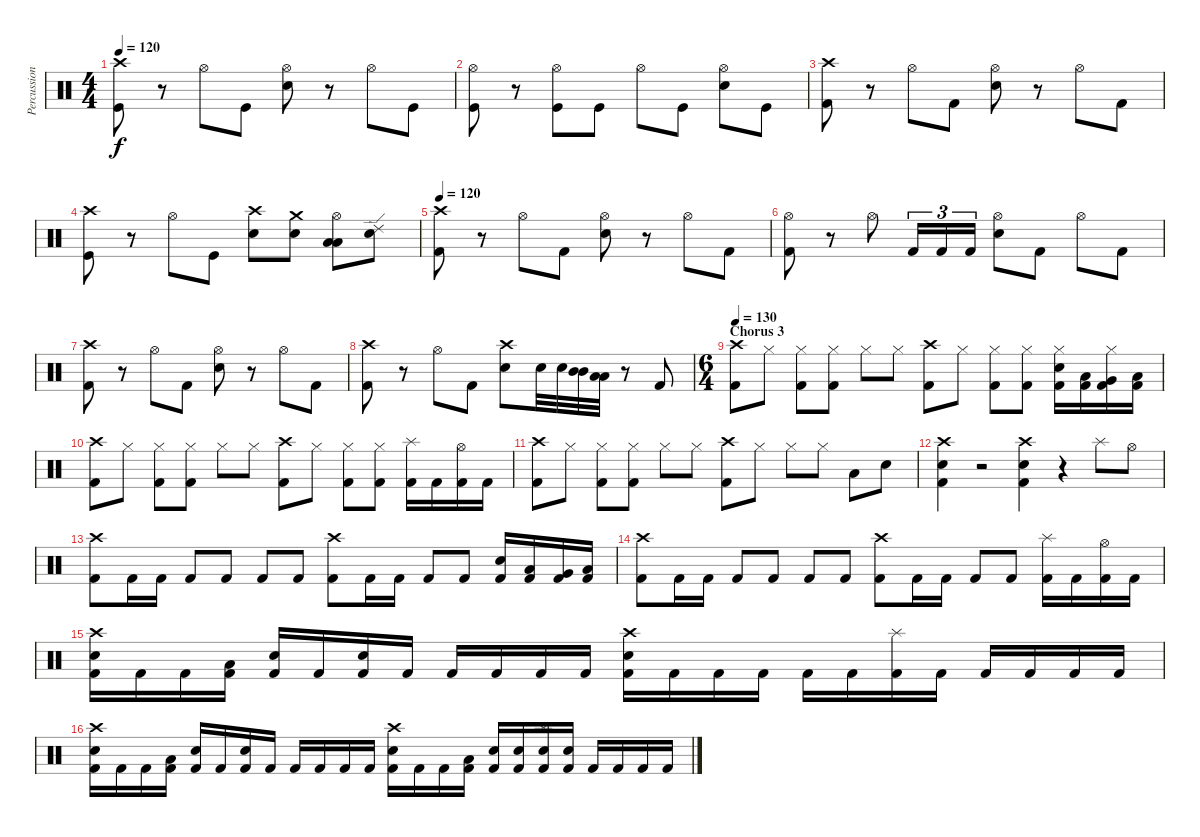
\track ("Percussion" "Percussion") {instrument percussion}
\staff {score}
\articulation defaults
\ts (4 4)
\tempo 120
\clef neutral
\ks c
("Crash high (hit)" "Kick (hit)").8{dy f} r.8 "Hi-Hat (open)".8 "Kick (hit)".8 ("Hi-Hat (open)" "Electric Snare (hit)").8 r.8 "Hi-Hat (open)".8 "Kick (hit)".8 |
("Hi-Hat (open)" "Kick (hit)").8 r.8 ("Hi-Hat (open)" "Kick (hit)").8 "Kick (hit)".8 "Hi-Hat (open)".8 "Kick (hit)".8 ("Hi-Hat (open)" "Electric Snare (hit)").8 "Kick (hit)".8 |
("Crash high (hit)" "Kick (hit) 2").8 r.8 "Hi-Hat (open)".8 "Kick (hit) 2".8 ("Hi-Hat (open)" "Electric Snare (hit)").8 r.8 "Hi-Hat (open)".8 "Kick (hit) 2".8 |
("Crash high (hit)" "Kick (hit)").8 r.8 "Hi-Hat (open)".8 "Kick (hit)".8 ("Crash high (hit)" "Electric Snare (hit)").8 ("Crash medium (hit)" "Electric Snare (hit)").8 ("Hi-Hat (open)" "Low Tom (hit)" "Low Tom (hit)").8 ("Ride (edge) 2" "Electric Snare (hit)").8 |
\tempo 120
("Crash high (hit)" "Kick (hit) 2").8 r.8 "Hi-Hat (open)".8 "Kick (hit) 2".8 ("Hi-Hat (open)" "Electric Snare (hit)").8 r.8 "Hi-Hat (open)".8 "Kick (hit) 2".8 |
("Hi-Hat (open)" "Kick (hit) 2").8 r.8 "Hi-Hat (open)".8 "Kick (hit) 2".16{tu (3 2)} "Kick (hit) 2".16{tu (3 2)} "Kick (hit) 2".16{tu (3 2)} ("Hi-Hat (open)" "Electric Snare (hit)").8 "Kick (hit) 2".8 "Hi-Hat (open)".8 "Kick (hit) 2".8 |
("Crash high (hit)" "Kick (hit) 2").8 r.8 "Hi-Hat (open)".8 "Kick (hit) 2".8 ("Hi-Hat (open)" "Electric Snare (hit)").8 r.8 "Hi-Hat (open)".8 "Kick (hit) 2".8 |
("Crash high (hit)" "Kick (hit) 2").8 r.8 "Hi-Hat (open)".8 "Kick (hit) 2".8 ("Crash high (hit)" "Electric Snare (hit)").8 "Electric Snare (hit)".32 "Electric Snare (hit)".32 ("Mid Tom (hit)" "Mid Tom (hit)").32 ("Low Tom (hit)" "Low Tom (hit)").32 r.8 "Kick (hit) 2".8 |
\ts (6 4)
\section ("" "Chorus 3")
\tempo 130
("Crash high (hit)" "Kick (hit) 2").8 "Hi-Hat (closed)".8 ("Hi-Hat (closed)" "Kick (hit) 2").8 ("Hi-Hat (closed)" "Kick (hit) 2").8 "Hi-Hat (closed)".8 "Hi-Hat (closed)".8 ("Crash high (hit)" "Kick (hit) 2").8 "Hi-Hat (closed)".8 ("Hi-Hat (closed)" "Kick (hit) 2").8 ("Hi-Hat (closed)" "Kick (hit) 2").8 ("Hi-Hat (closed)" "Electric Snare (hit)" "Kick (hit) 2").16 ("Low Tom (hit)" "Kick (hit) 2").16 ("Hi-Hat (closed)" "Very Low Tom (hit)" "Kick (hit) 2").16 ("Low Floor Tom (hit)" "Kick (hit) 2").16 |
("Crash high (hit)" "Kick (hit) 2").8 "Hi-Hat (closed)".8 ("Hi-Hat (closed)" "Kick (hit) 2").8 ("Hi-Hat (closed)" "Kick (hit) 2").8 "Hi-Hat (closed)".8 "Hi-Hat (closed)".8 ("Crash high (hit)" "Kick (hit) 2").8 "Hi-Hat (closed)".8 ("Hi-Hat (closed)" "Kick (hit) 2").8 ("Hi-Hat (closed)" "Kick (hit) 2").8 ("Splash (hit)" "Kick (hit) 2").16 "Kick (hit) 2".16 ("Hi-Hat (open)" "Kick (hit) 2").16 "Kick (hit) 2".16 |
("Crash high (hit)" "Kick (hit) 2").8 "Hi-Hat (closed)".8 ("Hi-Hat (closed)" "Kick (hit) 2").8 ("Hi-Hat (closed)" "Kick (hit) 2").8 "Hi-Hat (closed)".8 "Hi-Hat (closed)".8 ("Crash high (hit)" "Kick (hit) 2").8 "Hi-Hat (closed)".8 "Hi-Hat (closed)".8 "Hi-Hat (closed)".8 "Low Tom (hit)".8 "Snare (hit) 2".8 |
("Crash high (hit)" "Snare (hit) 2" "Kick (hit) 2").4 r.2 ("Crash high (hit)" "Snare (hit) 2" "Kick (hit) 2").4 r.4 "Splash (hit)".8 "Hi-Hat (open)".8 |
("Crash high (hit)" "Kick (hit) 2").8 "Kick (hit) 2".16 "Kick (hit) 2".16 "Kick (hit) 2".8 "Kick (hit) 2".8 "Kick (hit) 2".8 "Kick (hit) 2".8 ("Crash high (hit)" "Kick (hit) 2").8 "Kick (hit) 2".16 "Kick (hit) 2".16 "Kick (hit) 2".8 "Kick (hit) 2".8 ("Electric Snare (hit)" "Kick (hit) 2").16 ("Low Tom (hit)" "Kick (hit) 2").16 ("Very Low Tom (hit)" "Kick (hit) 2").16 ("Low Floor Tom (hit)" "Kick (hit) 2").16 |
("Crash high (hit)" "Kick (hit) 2").8 "Kick (hit) 2".16 "Kick (hit) 2".16 "Kick (hit) 2".8 "Kick (hit) 2".8 "Kick (hit) 2".8 "Kick (hit) 2".8 ("Crash high (hit)" "Kick (hit) 2").8 "Kick (hit) 2".16 "Kick (hit) 2".16 "Kick (hit) 2".8 "Kick (hit) 2".8 ("Splash (hit)" "Kick (hit) 2").16 "Kick (hit) 2".16 ("Hi-Hat (open)" "Kick (hit) 2").16 "Kick (hit) 2".16 |
("Crash high (hit)" "Snare (hit) 2" "Kick (hit) 2").16 "Kick (hit) 2".16 "Kick (hit) 2".16 ("Low Tom (hit)" "Kick (hit) 2").16 ("Snare (hit) 2" "Kick (hit) 2").16 "Kick (hit) 2".16 ("Snare (hit) 2" "Kick (hit) 2").16 "Kick (hit) 2".16 "Kick (hit) 2".16 "Kick (hit) 2".16 "Kick (hit) 2".16 "Kick (hit) 2".16 ("Crash high (hit)" "Snare (hit) 2" "Kick (hit) 2").16 "Kick (hit) 2".16 "Kick (hit) 2".16 "Kick (hit) 2".16 "Kick (hit) 2".16 "Kick (hit) 2".16 ("Splash (hit)" "Kick (hit) 2").16 "Kick (hit) 2".16 "Kick (hit) 2".16 "Kick (hit) 2".16 "Kick (hit) 2".16 "Kick (hit) 2".16 |
("Crash high (hit)" "Snare (hit) 2" "Kick (hit) 2").16 "Kick (hit) 2".16 "Kick (hit) 2".16 ("Low Tom (hit)" "Kick (hit) 2").16 ("Snare (hit) 2" "Kick (hit) 2").16 "Kick (hit) 2".16 ("Snare (hit) 2" "Kick (hit) 2").16 "Kick (hit) 2".16 "Kick (hit) 2".16 "Kick (hit) 2".16 "Kick (hit) 2".16 "Kick (hit) 2".16 ("Crash high (hit)" "Snare (hit) 2" "Kick (hit) 2").16 "Kick (hit) 2".16 "Kick (hit) 2".16 ("Low Tom (hit)" "Kick (hit) 2").16 ("Snare (hit) 2" "Kick (hit) 2").16 ("Electric Snare (hit)" "Kick (hit) 2").16 ("Splash (hit)" "Snare (hit) 2" "Kick (hit) 2").16 ("Electric Snare (hit)" "Kick (hit) 2").16 "Kick (hit) 2".16 "Kick (hit) 2".16 "Kick (hit) 2".16 "Kick (hit) 2".16
